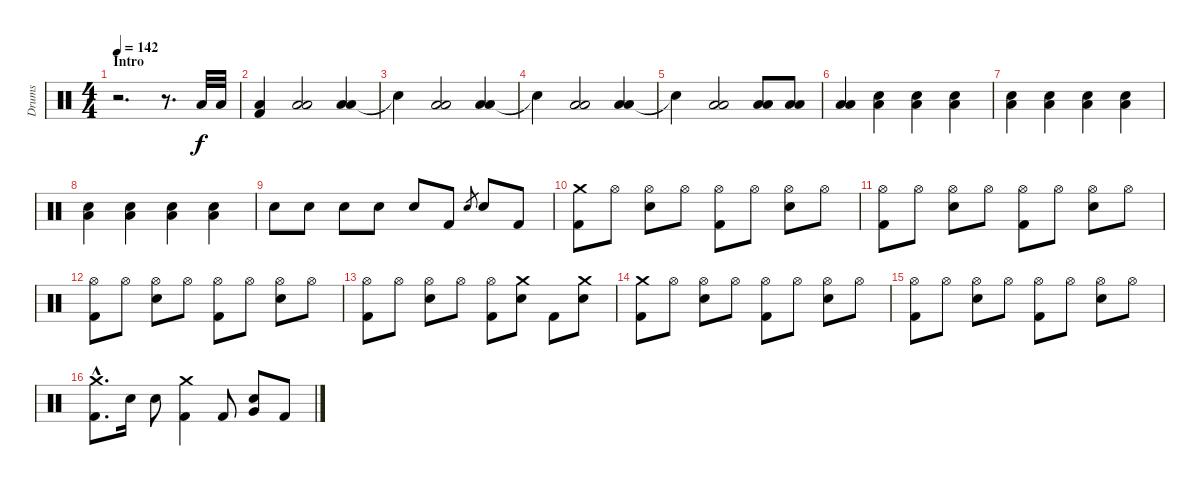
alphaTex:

\track ("Drums" "Drums") {instrument percussion}
\staff {score}
\articulation defaults
\ts (4 4)
\section ("" "Intro")
\tempo 142
\clef neutral
\ks c
r.2{d dy f} r.8{d} "Low Floor Tom (hit)".32 "Low Floor Tom (hit)".32 |
("Low Floor Tom (hit)" "Kick (hit) 2").4 ("Low Tom (hit)" "Low Floor Tom (hit)").2 ("Low Tom (hit)" "Low Floor Tom (hit)").4 |
"Snare (hit)"{t}.4 ("Low Tom (hit)" "Low Floor Tom (hit)").2 ("Low Tom (hit)" "Low Floor Tom (hit)").4 |
"Snare (hit)"{t}.4 ("Low Tom (hit)" "Low Floor Tom (hit)").2 ("Low Tom (hit)" "Low Floor Tom (hit)").4 |
"Snare (hit)"{t}.4 ("Low Tom (hit)" "Low Floor Tom (hit)").2 ("Low Tom (hit)" "Low Floor Tom (hit)").8 ("Low Tom (hit)" "Low Floor Tom (hit)").8 |
("Low Tom (hit)" "Low Floor Tom (hit)").4 ("Snare (hit) 2" "Low Tom (hit)").4 ("Snare (hit) 2" "Low Tom (hit)").4 ("Snare (hit) 2" "Low Tom (hit)").4 |
("Snare (hit) 2" "Low Tom (hit)").4 ("Snare (hit) 2" "Low Tom (hit)").4 ("Snare (hit) 2" "Low Tom (hit)").4 ("Snare (hit) 2" "Low Tom (hit)").4 |
("Snare (hit) 2" "Low Tom (hit)").4 ("Snare (hit) 2" "Low Tom (hit)").4 ("Snare (hit) 2" "Low Tom (hit)").4 ("Snare (hit) 2" "Low Tom (hit)").4 |
"Snare (hit) 2".8 "Snare (hit) 2".8 "Snare (hit) 2".8 "Snare (hit) 2".8 "Snare (hit) 2".8 "Kick (hit) 2".8 "Snare (hit) 2".8{gr} "Snare (hit) 2".8 "Kick (hit) 2".8 |
("Crash medium (hit)" "Kick (hit) 2").8 "Hi-Hat (open)".8 ("Hi-Hat (open)" "Snare (hit) 2").8 "Hi-Hat (open)".8 ("Hi-Hat (open)" "Kick (hit) 2").8 "Hi-Hat (open)".8 ("Hi-Hat (open)" "Snare (hit) 2").8 "Hi-Hat (open)".8 |
("Hi-Hat (open)" "Kick (hit) 2").8 "Hi-Hat (open)".8 ("Hi-Hat (open)" "Snare (hit) 2").8 "Hi-Hat (open)".8 ("Hi-Hat (open)" "Kick (hit) 2").8 "Hi-Hat (open)".8 ("Hi-Hat (open)" "Snare (hit) 2").8 "Hi-Hat (open)".8 |
("Hi-Hat (open)" "Kick (hit) 2").8 "Hi-Hat (open)".8 ("Hi-Hat (open)" "Snare (hit) 2").8 "Hi-Hat (open)".8 ("Hi-Hat (open)" "Kick (hit) 2").8 "Hi-Hat (open)".8 ("Hi-Hat (open)" "Snare (hit) 2").8 "Hi-Hat (open)".8 |
("Hi-Hat (open)" "Kick (hit) 2").8 "Hi-Hat (open)".8 ("Hi-Hat (open)" "Snare (hit) 2").8 "Hi-Hat (open)".8 ("Hi-Hat (open)" "Kick (hit) 2").8 ("Crash medium (hit)" "Snare (hit) 2").8 "Kick (hit) 2".8 ("Crash medium (hit)" "Snare (hit) 2").8 |
("Crash medium (hit)" "Kick (hit) 2").8 "Hi-Hat (open)".8 ("Hi-Hat (open)" "Snare (hit) 2").8 "Hi-Hat (open)".8 ("Hi-Hat (open)" "Kick (hit) 2").8 "Hi-Hat (open)".8 ("Hi-Hat (open)" "Snare (hit) 2").8 "Hi-Hat (open)".8 |
("Hi-Hat (open)" "Kick (hit) 2").8 "Hi-Hat (open)".8 ("Hi-Hat (open)" "Snare (hit) 2").8 "Hi-Hat (open)".8 ("Hi-Hat (open)" "Kick (hit) 2").8 "Hi-Hat (open)".8 ("Hi-Hat (open)" "Snare (hit) 2").8 "Hi-Hat (open)".8 |
("Crash medium (hit)"{hac} "Kick (hit) 2"{hac}).8{d} "Snare (hit) 2".16 "Snare (hit) 2".8 ("Crash medium (hit)" "Kick (hit) 2").4 "Kick (hit) 2".8 ("Snare (hit) 2" "Very Low Tom (hit)").8 "Kick (hit) 2".8
